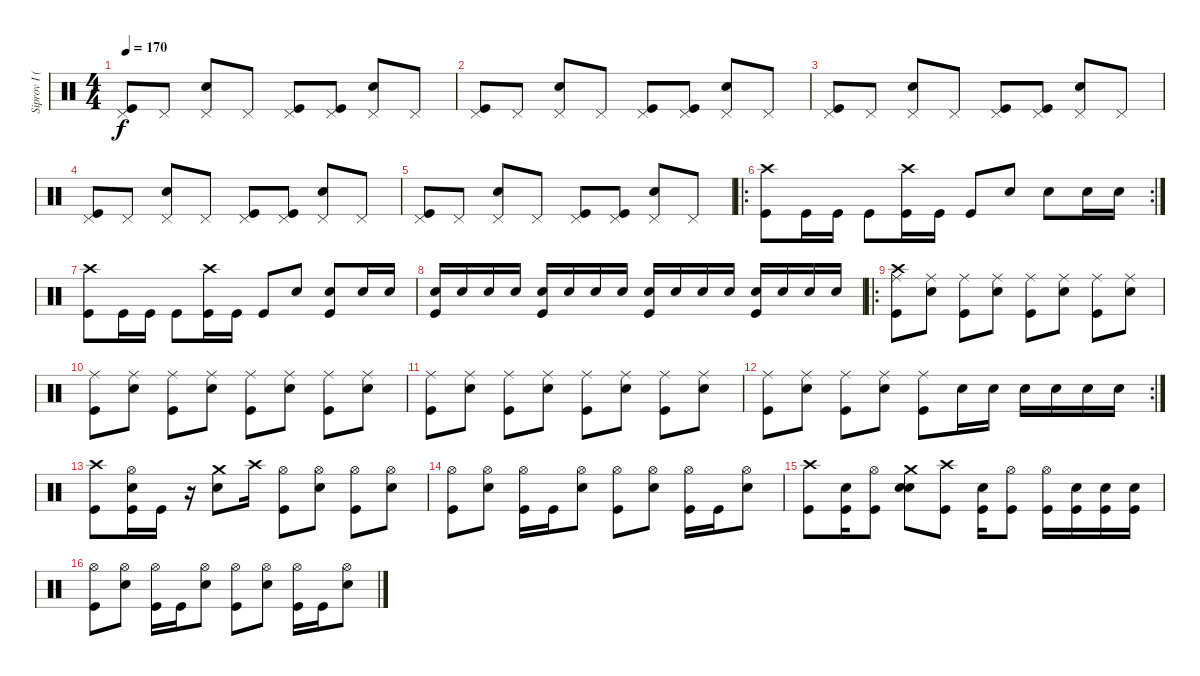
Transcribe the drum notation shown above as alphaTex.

\track ("Siprov I (DRUMS)" "Siprov I (") {instrument percussion}
\staff {score}
\articulation defaults
\ts (4 4)
\tempo 170
\clef neutral
\ks c
("Pedal Hi-Hat (hit)" "Kick (hit)").8{dy f} "Pedal Hi-Hat (hit)".8 ("Pedal Hi-Hat (hit)" "Electric Snare (hit)").8 "Pedal Hi-Hat (hit)".8 ("Pedal Hi-Hat (hit)" "Kick (hit)").8 ("Pedal Hi-Hat (hit)" "Kick (hit)").8 ("Pedal Hi-Hat (hit)" "Electric Snare (hit)").8 "Pedal Hi-Hat (hit)".8 |
("Pedal Hi-Hat (hit)" "Kick (hit)").8 "Pedal Hi-Hat (hit)".8 ("Pedal Hi-Hat (hit)" "Electric Snare (hit)").8 "Pedal Hi-Hat (hit)".8 ("Pedal Hi-Hat (hit)" "Kick (hit)").8 ("Pedal Hi-Hat (hit)" "Kick (hit)").8 ("Pedal Hi-Hat (hit)" "Electric Snare (hit)").8 "Pedal Hi-Hat (hit)".8 |
("Pedal Hi-Hat (hit)" "Kick (hit)").8 "Pedal Hi-Hat (hit)".8 ("Pedal Hi-Hat (hit)" "Electric Snare (hit)").8 "Pedal Hi-Hat (hit)".8 ("Pedal Hi-Hat (hit)" "Kick (hit)").8 ("Pedal Hi-Hat (hit)" "Kick (hit)").8 ("Pedal Hi-Hat (hit)" "Electric Snare (hit)").8 "Pedal Hi-Hat (hit)".8 |
("Pedal Hi-Hat (hit)" "Kick (hit)").8 "Pedal Hi-Hat (hit)".8 ("Pedal Hi-Hat (hit)" "Electric Snare (hit)").8 "Pedal Hi-Hat (hit)".8 ("Pedal Hi-Hat (hit)" "Kick (hit)").8 ("Pedal Hi-Hat (hit)" "Kick (hit)").8 ("Pedal Hi-Hat (hit)" "Electric Snare (hit)").8 "Pedal Hi-Hat (hit)".8 |
("Pedal Hi-Hat (hit)" "Kick (hit)").8 "Pedal Hi-Hat (hit)".8 ("Pedal Hi-Hat (hit)" "Electric Snare (hit)").8 "Pedal Hi-Hat (hit)".8 ("Pedal Hi-Hat (hit)" "Kick (hit)").8 ("Pedal Hi-Hat (hit)" "Kick (hit)").8 ("Pedal Hi-Hat (hit)" "Electric Snare (hit)").8 "Pedal Hi-Hat (hit)".8 |
\ro
\rc 2
("Crash high (hit)" "Kick (hit)").8 "Kick (hit)".16 "Kick (hit)".16 "Kick (hit)".8 ("Crash high (hit)" "Kick (hit)").16 "Kick (hit)".16 "Kick (hit)".8 "Electric Snare (hit)".8 "Electric Snare (hit)".8 "Electric Snare (hit)".16 "Electric Snare (hit)".16 |
("Crash high (hit)" "Kick (hit)").8 "Kick (hit)".16 "Kick (hit)".16 "Kick (hit)".8 ("Crash high (hit)" "Kick (hit)").16 "Kick (hit)".16 "Kick (hit)".8 "Electric Snare (hit)".8 ("Electric Snare (hit)" "Kick (hit)").8 "Electric Snare (hit)".16 "Electric Snare (hit)".16 |
("Electric Snare (hit)" "Kick (hit)").16 "Electric Snare (hit)".16 "Electric Snare (hit)".16 "Electric Snare (hit)".16 ("Electric Snare (hit)" "Kick (hit)").16 "Electric Snare (hit)".16 "Electric Snare (hit)".16 "Electric Snare (hit)".16 ("Electric Snare (hit)" "Kick (hit)").16 "Electric Snare (hit)".16 "Electric Snare (hit)".16 "Electric Snare (hit)".16 ("Electric Snare (hit)" "Kick (hit)").16 "Electric Snare (hit)".16 "Electric Snare (hit)".16 "Electric Snare (hit)".16 |
\ro
("Ride (middle)" "Crash high (hit)" "Kick (hit)").8 ("Ride (middle)" "Electric Snare (hit)").8 ("Ride (middle)" "Kick (hit)").8 ("Ride (middle)" "Electric Snare (hit)").8 ("Ride (middle)" "Kick (hit)").8 ("Ride (middle)" "Electric Snare (hit)").8 ("Ride (middle)" "Kick (hit)").8 ("Ride (middle)" "Electric Snare (hit)").8 |
("Ride (middle)" "Kick (hit)").8 ("Ride (middle)" "Electric Snare (hit)").8 ("Ride (middle)" "Kick (hit)").8 ("Ride (middle)" "Electric Snare (hit)").8 ("Ride (middle)" "Kick (hit)").8 ("Ride (middle)" "Electric Snare (hit)").8 ("Ride (middle)" "Kick (hit)").8 ("Ride (middle)" "Electric Snare (hit)").8 |
("Ride (middle)" "Kick (hit)").8 ("Ride (middle)" "Electric Snare (hit)").8 ("Ride (middle)" "Kick (hit)").8 ("Ride (middle)" "Electric Snare (hit)").8 ("Ride (middle)" "Kick (hit)").8 ("Ride (middle)" "Electric Snare (hit)").8 ("Ride (middle)" "Kick (hit)").8 ("Ride (middle)" "Electric Snare (hit)").8 |
\rc 2
("Ride (middle)" "Kick (hit)").8 ("Ride (middle)" "Electric Snare (hit)").8 ("Ride (middle)" "Kick (hit)").8 ("Ride (middle)" "Electric Snare (hit)").8 ("Ride (middle)" "Kick (hit)").8 "Electric Snare (hit)".16 "Electric Snare (hit)".16 "Electric Snare (hit)".16 "Electric Snare (hit)".16 "Electric Snare (hit)".16 "Electric Snare (hit)".16 |
("Crash high (hit)" "Kick (hit)").8 ("Hi-Hat (open)" "Electric Snare (hit)" "Kick (hit)").16 "Kick (hit)".16 r.16 ("Crash medium (hit)" "Electric Snare (hit)").8 "Crash high (hit)".16 ("Hi-Hat (open)" "Kick (hit)").8 ("Hi-Hat (open)" "Electric Snare (hit)").8 ("Hi-Hat (open)" "Kick (hit)").8 ("Hi-Hat (open)" "Electric Snare (hit)").8 |
("Hi-Hat (open)" "Kick (hit)").8 ("Hi-Hat (open)" "Electric Snare (hit)").8 ("Hi-Hat (open)" "Kick (hit)").16 "Kick (hit)".16 ("Hi-Hat (open)" "Electric Snare (hit)").8 ("Hi-Hat (open)" "Kick (hit)").8 ("Hi-Hat (open)" "Electric Snare (hit)").8 ("Hi-Hat (open)" "Kick (hit)").16 "Kick (hit)".16 ("Hi-Hat (open)" "Electric Snare (hit)").8 |
("Crash high (hit)" "Kick (hit)").8 ("Electric Snare (hit)" "Kick (hit)").16 ("Hi-Hat (open)" "Kick (hit)").8 ("Crash medium (hit)" "Electric Snare (hit)" "Snare (hit)").8 ("Crash high (hit)" "Kick (hit)").8 ("Electric Snare (hit)" "Kick (hit)").16 ("Hi-Hat (open)" "Kick (hit)").8 ("Hi-Hat (open)" "Kick (hit)").16 ("Electric Snare (hit)" "Kick (hit)").16 ("Electric Snare (hit)" "Kick (hit)").16 ("Electric Snare (hit)" "Kick (hit)").16 |
("Hi-Hat (open)" "Kick (hit)").8 ("Hi-Hat (open)" "Electric Snare (hit)").8 ("Hi-Hat (open)" "Kick (hit)").16 "Kick (hit)".16 ("Hi-Hat (open)" "Electric Snare (hit)").8 ("Hi-Hat (open)" "Kick (hit)").8 ("Hi-Hat (open)" "Electric Snare (hit)").8 ("Hi-Hat (open)" "Kick (hit)").16 "Kick (hit)".16 ("Hi-Hat (open)" "Electric Snare (hit)").8
